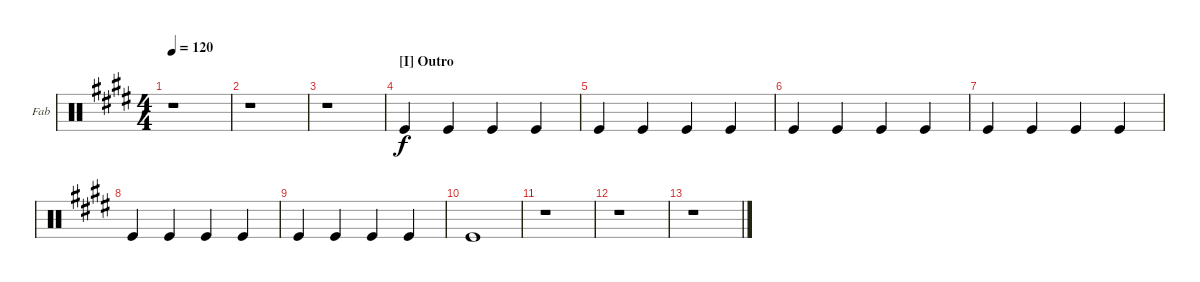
\bracketExtendMode groupsimilarinstruments
\firstSystemTrackNameOrientation horizontal
\otherSystemsTrackNameOrientation horizontal
\track ("Tambourine" "Fab") {instrument percussion}
\staff {score}
\articulation defaults
\ts (4 4)
\tempo 120
\clef neutral
\ks e
r.1{dy f} |
r.1 |
r.1 |
\section ("I" "Outro")
"Kick (hit)".4 "Kick (hit)".4 "Kick (hit)".4 "Kick (hit)".4 |
"Kick (hit)".4 "Kick (hit)".4 "Kick (hit)".4 "Kick (hit)".4 |
"Kick (hit)".4 "Kick (hit)".4 "Kick (hit)".4 "Kick (hit)".4 |
"Kick (hit)".4 "Kick (hit)".4 "Kick (hit)".4 "Kick (hit)".4 |
"Kick (hit)".4 "Kick (hit)".4 "Kick (hit)".4 "Kick (hit)".4 |
"Kick (hit)".4 "Kick (hit)".4 "Kick (hit)".4 "Kick (hit)".4 |
"Kick (hit)".1 |
r.1 |
r.1 |
r.1
